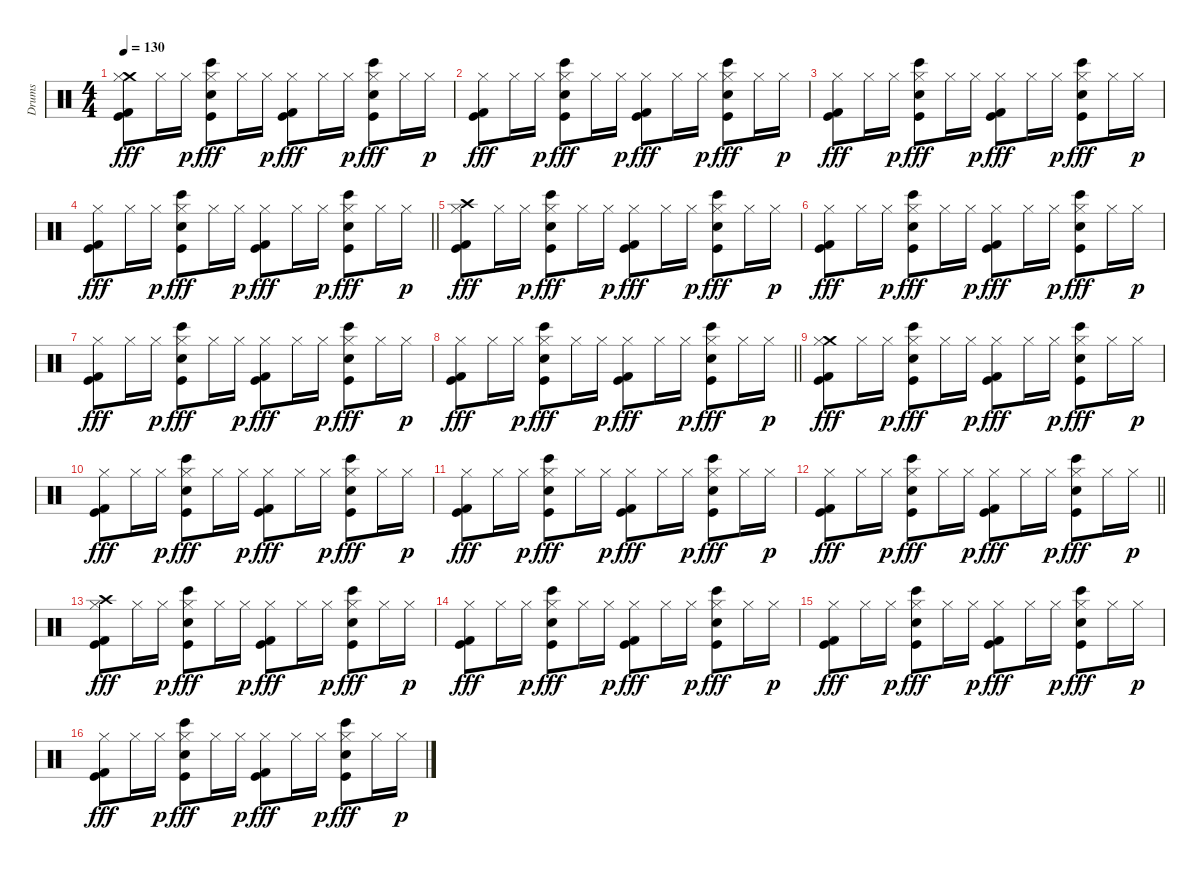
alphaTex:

\track ("Drums" "Drums") {instrument percussion}
\staff {score}
\articulation defaults
\ts (4 4)
\tempo 130
\clef neutral
\ks c
("Crash medium (hit)" "Hi-Hat (closed)" "Kick (hit) 2" "Kick (hit)").8{dy fff} "Hi-Hat (closed)".16 "Hi-Hat (closed)".16{dy p} ("Bongo High (hit)" "Hi-Hat (closed)" "Snare (hit) 2" "Kick (hit)").8{dy fff} "Hi-Hat (closed)".16 "Hi-Hat (closed)".16{dy p} ("Hi-Hat (closed)" "Kick (hit) 2" "Kick (hit)").8{dy fff} "Hi-Hat (closed)".16 "Hi-Hat (closed)".16{dy p} ("Bongo High (hit)" "Hi-Hat (closed)" "Snare (hit) 2" "Kick (hit)").8{dy fff} "Hi-Hat (closed)".16 "Hi-Hat (closed)".16{dy p} |
("Hi-Hat (closed)" "Kick (hit) 2" "Kick (hit)").8{dy fff} "Hi-Hat (closed)".16 "Hi-Hat (closed)".16{dy p} ("Bongo High (hit)" "Hi-Hat (closed)" "Snare (hit) 2" "Kick (hit)").8{dy fff} "Hi-Hat (closed)".16 "Hi-Hat (closed)".16{dy p} ("Hi-Hat (closed)" "Kick (hit) 2" "Kick (hit)").8{dy fff} "Hi-Hat (closed)".16 "Hi-Hat (closed)".16{dy p} ("Bongo High (hit)" "Hi-Hat (closed)" "Snare (hit) 2" "Kick (hit)").8{dy fff} "Hi-Hat (closed)".16 "Hi-Hat (closed)".16{dy p} |
("Hi-Hat (closed)" "Kick (hit) 2" "Kick (hit)").8{dy fff} "Hi-Hat (closed)".16 "Hi-Hat (closed)".16{dy p} ("Bongo High (hit)" "Hi-Hat (closed)" "Snare (hit) 2" "Kick (hit)").8{dy fff} "Hi-Hat (closed)".16 "Hi-Hat (closed)".16{dy p} ("Hi-Hat (closed)" "Kick (hit) 2" "Kick (hit)").8{dy fff} "Hi-Hat (closed)".16 "Hi-Hat (closed)".16{dy p} ("Bongo High (hit)" "Hi-Hat (closed)" "Snare (hit) 2" "Kick (hit)").8{dy fff} "Hi-Hat (closed)".16 "Hi-Hat (closed)".16{dy p} |
\barLineRight lightlight
("Hi-Hat (closed)" "Kick (hit) 2" "Kick (hit)").8{dy fff} "Hi-Hat (closed)".16 "Hi-Hat (closed)".16{dy p} ("Bongo High (hit)" "Hi-Hat (closed)" "Snare (hit) 2" "Kick (hit)").8{dy fff} "Hi-Hat (closed)".16 "Hi-Hat (closed)".16{dy p} ("Hi-Hat (closed)" "Kick (hit) 2" "Kick (hit)").8{dy fff} "Hi-Hat (closed)".16 "Hi-Hat (closed)".16{dy p} ("Bongo High (hit)" "Hi-Hat (closed)" "Snare (hit) 2" "Kick (hit)").8{dy fff} "Hi-Hat (closed)".16 "Hi-Hat (closed)".16{dy p} |
("Crash high (hit)" "Hi-Hat (closed)" "Kick (hit) 2" "Kick (hit)").8{dy fff} "Hi-Hat (closed)".16 "Hi-Hat (closed)".16{dy p} ("Bongo High (hit)" "Hi-Hat (closed)" "Snare (hit) 2" "Kick (hit)").8{dy fff} "Hi-Hat (closed)".16 "Hi-Hat (closed)".16{dy p} ("Hi-Hat (closed)" "Kick (hit) 2" "Kick (hit)").8{dy fff} "Hi-Hat (closed)".16 "Hi-Hat (closed)".16{dy p} ("Bongo High (hit)" "Hi-Hat (closed)" "Snare (hit) 2" "Kick (hit)").8{dy fff} "Hi-Hat (closed)".16 "Hi-Hat (closed)".16{dy p} |
("Hi-Hat (closed)" "Kick (hit) 2" "Kick (hit)").8{dy fff} "Hi-Hat (closed)".16 "Hi-Hat (closed)".16{dy p} ("Bongo High (hit)" "Hi-Hat (closed)" "Snare (hit) 2" "Kick (hit)").8{dy fff} "Hi-Hat (closed)".16 "Hi-Hat (closed)".16{dy p} ("Hi-Hat (closed)" "Kick (hit) 2" "Kick (hit)").8{dy fff} "Hi-Hat (closed)".16 "Hi-Hat (closed)".16{dy p} ("Bongo High (hit)" "Hi-Hat (closed)" "Snare (hit) 2" "Kick (hit)").8{dy fff} "Hi-Hat (closed)".16 "Hi-Hat (closed)".16{dy p} |
("Hi-Hat (closed)" "Kick (hit) 2" "Kick (hit)").8{dy fff} "Hi-Hat (closed)".16 "Hi-Hat (closed)".16{dy p} ("Bongo High (hit)" "Hi-Hat (closed)" "Snare (hit) 2" "Kick (hit)").8{dy fff} "Hi-Hat (closed)".16 "Hi-Hat (closed)".16{dy p} ("Hi-Hat (closed)" "Kick (hit) 2" "Kick (hit)").8{dy fff} "Hi-Hat (closed)".16 "Hi-Hat (closed)".16{dy p} ("Bongo High (hit)" "Hi-Hat (closed)" "Snare (hit) 2" "Kick (hit)").8{dy fff} "Hi-Hat (closed)".16 "Hi-Hat (closed)".16{dy p} |
\barLineRight lightlight
("Hi-Hat (closed)" "Kick (hit) 2" "Kick (hit)").8{dy fff} "Hi-Hat (closed)".16 "Hi-Hat (closed)".16{dy p} ("Bongo High (hit)" "Hi-Hat (closed)" "Snare (hit) 2" "Kick (hit)").8{dy fff} "Hi-Hat (closed)".16 "Hi-Hat (closed)".16{dy p} ("Hi-Hat (closed)" "Kick (hit) 2" "Kick (hit)").8{dy fff} "Hi-Hat (closed)".16 "Hi-Hat (closed)".16{dy p} ("Bongo High (hit)" "Hi-Hat (closed)" "Snare (hit) 2" "Kick (hit)").8{dy fff} "Hi-Hat (closed)".16 "Hi-Hat (closed)".16{dy p} |
("Crash medium (hit)" "Hi-Hat (closed)" "Kick (hit) 2" "Kick (hit)").8{dy fff} "Hi-Hat (closed)".16 "Hi-Hat (closed)".16{dy p} ("Bongo High (hit)" "Hi-Hat (closed)" "Snare (hit) 2" "Kick (hit)").8{dy fff} "Hi-Hat (closed)".16 "Hi-Hat (closed)".16{dy p} ("Hi-Hat (closed)" "Kick (hit) 2" "Kick (hit)").8{dy fff} "Hi-Hat (closed)".16 "Hi-Hat (closed)".16{dy p} ("Bongo High (hit)" "Hi-Hat (closed)" "Snare (hit) 2" "Kick (hit)").8{dy fff} "Hi-Hat (closed)".16 "Hi-Hat (closed)".16{dy p} |
("Hi-Hat (closed)" "Kick (hit) 2" "Kick (hit)").8{dy fff} "Hi-Hat (closed)".16 "Hi-Hat (closed)".16{dy p} ("Bongo High (hit)" "Hi-Hat (closed)" "Snare (hit) 2" "Kick (hit)").8{dy fff} "Hi-Hat (closed)".16 "Hi-Hat (closed)".16{dy p} ("Hi-Hat (closed)" "Kick (hit) 2" "Kick (hit)").8{dy fff} "Hi-Hat (closed)".16 "Hi-Hat (closed)".16{dy p} ("Bongo High (hit)" "Hi-Hat (closed)" "Snare (hit) 2" "Kick (hit)").8{dy fff} "Hi-Hat (closed)".16 "Hi-Hat (closed)".16{dy p} |
("Hi-Hat (closed)" "Kick (hit) 2" "Kick (hit)").8{dy fff} "Hi-Hat (closed)".16 "Hi-Hat (closed)".16{dy p} ("Bongo High (hit)" "Hi-Hat (closed)" "Snare (hit) 2" "Kick (hit)").8{dy fff} "Hi-Hat (closed)".16 "Hi-Hat (closed)".16{dy p} ("Hi-Hat (closed)" "Kick (hit) 2" "Kick (hit)").8{dy fff} "Hi-Hat (closed)".16 "Hi-Hat (closed)".16{dy p} ("Bongo High (hit)" "Hi-Hat (closed)" "Snare (hit) 2" "Kick (hit)").8{dy fff} "Hi-Hat (closed)".16 "Hi-Hat (closed)".16{dy p} |
\barLineRight lightlight
("Hi-Hat (closed)" "Kick (hit) 2" "Kick (hit)").8{dy fff} "Hi-Hat (closed)".16 "Hi-Hat (closed)".16{dy p} ("Bongo High (hit)" "Hi-Hat (closed)" "Snare (hit) 2" "Kick (hit)").8{dy fff} "Hi-Hat (closed)".16 "Hi-Hat (closed)".16{dy p} ("Hi-Hat (closed)" "Kick (hit) 2" "Kick (hit)").8{dy fff} "Hi-Hat (closed)".16 "Hi-Hat (closed)".16{dy p} ("Bongo High (hit)" "Hi-Hat (closed)" "Snare (hit) 2" "Kick (hit)").8{dy fff} "Hi-Hat (closed)".16 "Hi-Hat (closed)".16{dy p} |
("Crash high (hit)" "Hi-Hat (closed)" "Kick (hit) 2" "Kick (hit)").8{dy fff} "Hi-Hat (closed)".16 "Hi-Hat (closed)".16{dy p} ("Bongo High (hit)" "Hi-Hat (closed)" "Snare (hit) 2" "Kick (hit)").8{dy fff} "Hi-Hat (closed)".16 "Hi-Hat (closed)".16{dy p} ("Hi-Hat (closed)" "Kick (hit) 2" "Kick (hit)").8{dy fff} "Hi-Hat (closed)".16 "Hi-Hat (closed)".16{dy p} ("Bongo High (hit)" "Hi-Hat (closed)" "Snare (hit) 2" "Kick (hit)").8{dy fff} "Hi-Hat (closed)".16 "Hi-Hat (closed)".16{dy p} |
("Hi-Hat (closed)" "Kick (hit) 2" "Kick (hit)").8{dy fff} "Hi-Hat (closed)".16 "Hi-Hat (closed)".16{dy p} ("Bongo High (hit)" "Hi-Hat (closed)" "Snare (hit) 2" "Kick (hit)").8{dy fff} "Hi-Hat (closed)".16 "Hi-Hat (closed)".16{dy p} ("Hi-Hat (closed)" "Kick (hit) 2" "Kick (hit)").8{dy fff} "Hi-Hat (closed)".16 "Hi-Hat (closed)".16{dy p} ("Bongo High (hit)" "Hi-Hat (closed)" "Snare (hit) 2" "Kick (hit)").8{dy fff} "Hi-Hat (closed)".16 "Hi-Hat (closed)".16{dy p} |
("Hi-Hat (closed)" "Kick (hit) 2" "Kick (hit)").8{dy fff} "Hi-Hat (closed)".16 "Hi-Hat (closed)".16{dy p} ("Bongo High (hit)" "Hi-Hat (closed)" "Snare (hit) 2" "Kick (hit)").8{dy fff} "Hi-Hat (closed)".16 "Hi-Hat (closed)".16{dy p} ("Hi-Hat (closed)" "Kick (hit) 2" "Kick (hit)").8{dy fff} "Hi-Hat (closed)".16 "Hi-Hat (closed)".16{dy p} ("Bongo High (hit)" "Hi-Hat (closed)" "Snare (hit) 2" "Kick (hit)").8{dy fff} "Hi-Hat (closed)".16 "Hi-Hat (closed)".16{dy p} |
("Hi-Hat (closed)" "Kick (hit) 2" "Kick (hit)").8{dy fff} "Hi-Hat (closed)".16 "Hi-Hat (closed)".16{dy p} ("Bongo High (hit)" "Hi-Hat (closed)" "Snare (hit) 2" "Kick (hit)").8{dy fff} "Hi-Hat (closed)".16 "Hi-Hat (closed)".16{dy p} ("Hi-Hat (closed)" "Kick (hit) 2" "Kick (hit)").8{dy fff} "Hi-Hat (closed)".16 "Hi-Hat (closed)".16{dy p} ("Bongo High (hit)" "Hi-Hat (closed)" "Snare (hit) 2" "Kick (hit)").8{dy fff} "Hi-Hat (closed)".16 "Hi-Hat (closed)".16{dy p}
